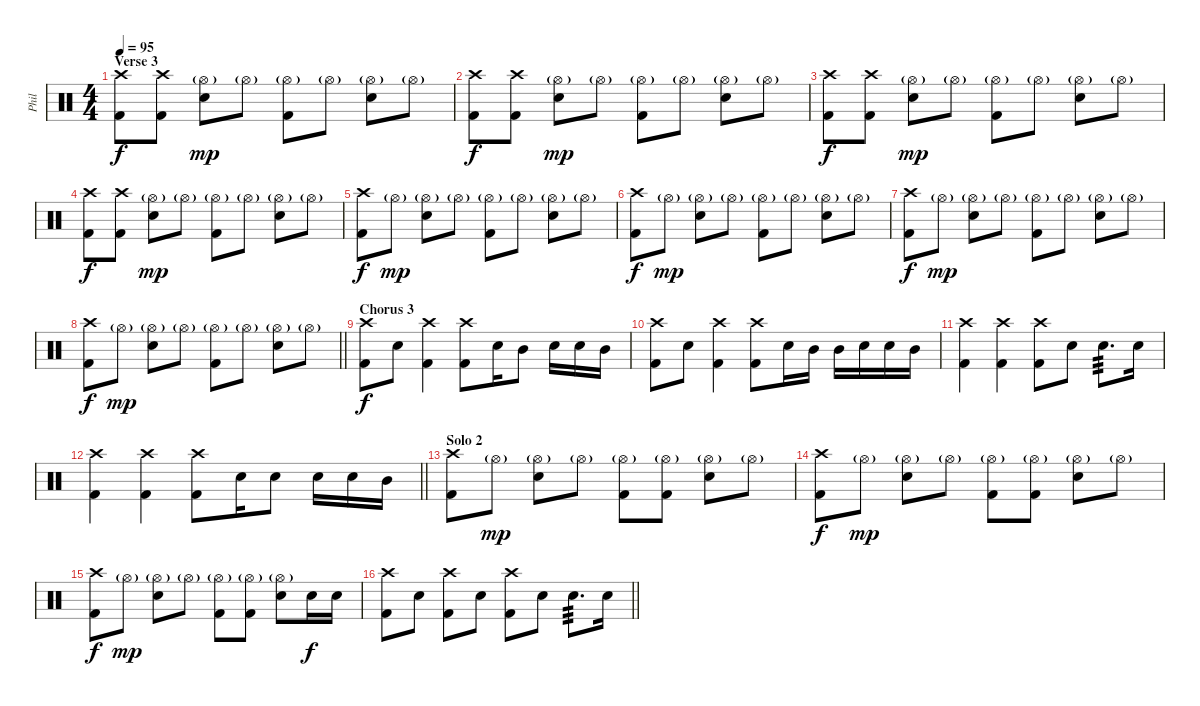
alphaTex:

\track ("Phil" "Phil") {instrument percussion}
\staff {score}
\articulation defaults
\ts (4 4)
\section ("" "Verse 3")
\tempo 95
\clef neutral
\ks c
("Crash high (hit)" "Kick (hit) 2").8{dy f} ("Crash high (hit)" "Kick (hit) 2").8 ("Hi-Hat (open)"{g} "Snare (hit) 2").8{dy mp} "Hi-Hat (open)"{g}.8 ("Hi-Hat (open)"{g} "Kick (hit) 2").8 "Hi-Hat (open)"{g}.8 ("Hi-Hat (open)"{g} "Snare (hit) 2").8 "Hi-Hat (open)"{g}.8 |
("Crash high (hit)" "Kick (hit) 2").8{dy f} ("Crash high (hit)" "Kick (hit) 2").8 ("Hi-Hat (open)"{g} "Snare (hit) 2").8{dy mp} "Hi-Hat (open)"{g}.8 ("Hi-Hat (open)"{g} "Kick (hit) 2").8 "Hi-Hat (open)"{g}.8 ("Hi-Hat (open)"{g} "Snare (hit) 2").8 "Hi-Hat (open)"{g}.8 |
("Crash high (hit)" "Kick (hit) 2").8{dy f} ("Crash high (hit)" "Kick (hit) 2").8 ("Hi-Hat (open)"{g} "Snare (hit) 2").8{dy mp} "Hi-Hat (open)"{g}.8 ("Hi-Hat (open)"{g} "Kick (hit) 2").8 "Hi-Hat (open)"{g}.8 ("Hi-Hat (open)"{g} "Snare (hit) 2").8 "Hi-Hat (open)"{g}.8 |
("Crash high (hit)" "Kick (hit) 2").8{dy f} ("Crash high (hit)" "Kick (hit) 2").8 ("Hi-Hat (open)"{g} "Snare (hit) 2").8{dy mp} "Hi-Hat (open)"{g}.8 ("Hi-Hat (open)"{g} "Kick (hit) 2").8 "Hi-Hat (open)"{g}.8 ("Hi-Hat (open)"{g} "Snare (hit) 2").8 "Hi-Hat (open)"{g}.8 |
("Crash high (hit)" "Kick (hit) 2").8{dy f} "Hi-Hat (open)"{g}.8{dy mp} ("Hi-Hat (open)"{g} "Snare (hit) 2").8 "Hi-Hat (open)"{g}.8 ("Hi-Hat (open)"{g} "Kick (hit) 2").8 "Hi-Hat (open)"{g}.8 ("Hi-Hat (open)"{g} "Snare (hit) 2").8 "Hi-Hat (open)"{g}.8 |
("Crash high (hit)" "Kick (hit) 2").8{dy f} "Hi-Hat (open)"{g}.8{dy mp} ("Hi-Hat (open)"{g} "Snare (hit) 2").8 "Hi-Hat (open)"{g}.8 ("Hi-Hat (open)"{g} "Kick (hit) 2").8 "Hi-Hat (open)"{g}.8 ("Hi-Hat (open)"{g} "Snare (hit) 2").8 "Hi-Hat (open)"{g}.8 |
("Crash high (hit)" "Kick (hit) 2").8{dy f} "Hi-Hat (open)"{g}.8{dy mp} ("Hi-Hat (open)"{g} "Snare (hit) 2").8 "Hi-Hat (open)"{g}.8 ("Hi-Hat (open)"{g} "Kick (hit) 2").8 "Hi-Hat (open)"{g}.8 ("Hi-Hat (open)"{g} "Snare (hit) 2").8 "Hi-Hat (open)"{g}.8 |
\barLineRight lightlight
("Crash high (hit)" "Kick (hit) 2").8{dy f} "Hi-Hat (open)"{g}.8{dy mp} ("Hi-Hat (open)"{g} "Snare (hit) 2").8 "Hi-Hat (open)"{g}.8 ("Hi-Hat (open)"{g} "Kick (hit) 2").8 "Hi-Hat (open)"{g}.8 ("Hi-Hat (open)"{g} "Snare (hit) 2").8 "Hi-Hat (open)"{g}.8 |
\section ("" "Chorus 3")
("Crash high (hit)" "Kick (hit) 2").8{dy f} "Snare (hit) 2".8 ("Crash high (hit)" "Kick (hit) 2").4 ("Crash high (hit)" "Kick (hit) 2").8 "Snare (hit) 2".16 "Mid Tom (hit)".8 "Snare (hit) 2".16 "Snare (hit) 2".16 "Mid Tom (hit)".16 |
("Crash high (hit)" "Kick (hit) 2").8 "Snare (hit) 2".8 ("Crash high (hit)" "Kick (hit) 2").4 ("Crash high (hit)" "Kick (hit) 2").8 "Snare (hit) 2".16 "Mid Tom (hit)".16 "Mid Tom (hit)".16 "Snare (hit) 2".16 "Snare (hit) 2".16 "Mid Tom (hit)".16 |
("Crash high (hit)" "Kick (hit) 2").4 ("Crash high (hit)" "Kick (hit) 2").4 ("Crash high (hit)" "Kick (hit) 2").8 "Snare (hit) 2".8 "Snare (hit) 2".8{d tp 3} "Snare (hit) 2".16 |
\barLineRight lightlight
("Crash high (hit)" "Kick (hit) 2").4 ("Crash high (hit)" "Kick (hit) 2").4 ("Crash high (hit)" "Kick (hit) 2").8 "Snare (hit) 2".16 "Snare (hit) 2".8 "Snare (hit) 2".16 "Snare (hit) 2".16 "Mid Tom (hit)".16 |
\section ("" "Solo 2")
("Crash high (hit)" "Kick (hit) 2").8 "Hi-Hat (open)"{g}.8{dy mp} ("Hi-Hat (open)"{g} "Snare (hit) 2").8 "Hi-Hat (open)"{g}.8 ("Hi-Hat (open)"{g} "Kick (hit) 2").8 ("Hi-Hat (open)"{g} "Kick (hit) 2").8 ("Hi-Hat (open)"{g} "Snare (hit) 2").8 "Hi-Hat (open)"{g}.8 |
("Crash high (hit)" "Kick (hit) 2").8{dy f} "Hi-Hat (open)"{g}.8{dy mp} ("Hi-Hat (open)"{g} "Snare (hit) 2").8 "Hi-Hat (open)"{g}.8 ("Hi-Hat (open)"{g} "Kick (hit) 2").8 ("Hi-Hat (open)"{g} "Kick (hit) 2").8 ("Hi-Hat (open)"{g} "Snare (hit) 2").8 "Hi-Hat (open)"{g}.8 |
("Crash high (hit)" "Kick (hit) 2").8{dy f} "Hi-Hat (open)"{g}.8{dy mp} ("Hi-Hat (open)"{g} "Snare (hit) 2").8 "Hi-Hat (open)"{g}.8 ("Hi-Hat (open)"{g} "Kick (hit) 2").8 ("Hi-Hat (open)"{g} "Kick (hit) 2").8 ("Hi-Hat (open)"{g} "Snare (hit) 2").8 "Snare (hit) 2".16{dy f} "Snare (hit) 2".16 |
\barLineRight lightlight
("Crash high (hit)" "Kick (hit) 2").8 "Snare (hit) 2".8 ("Crash high (hit)" "Kick (hit) 2").8 "Snare (hit) 2".8 ("Crash high (hit)" "Kick (hit) 2").8 "Snare (hit) 2".8 "Snare (hit) 2".8{d tp 3} "Snare (hit) 2".16
